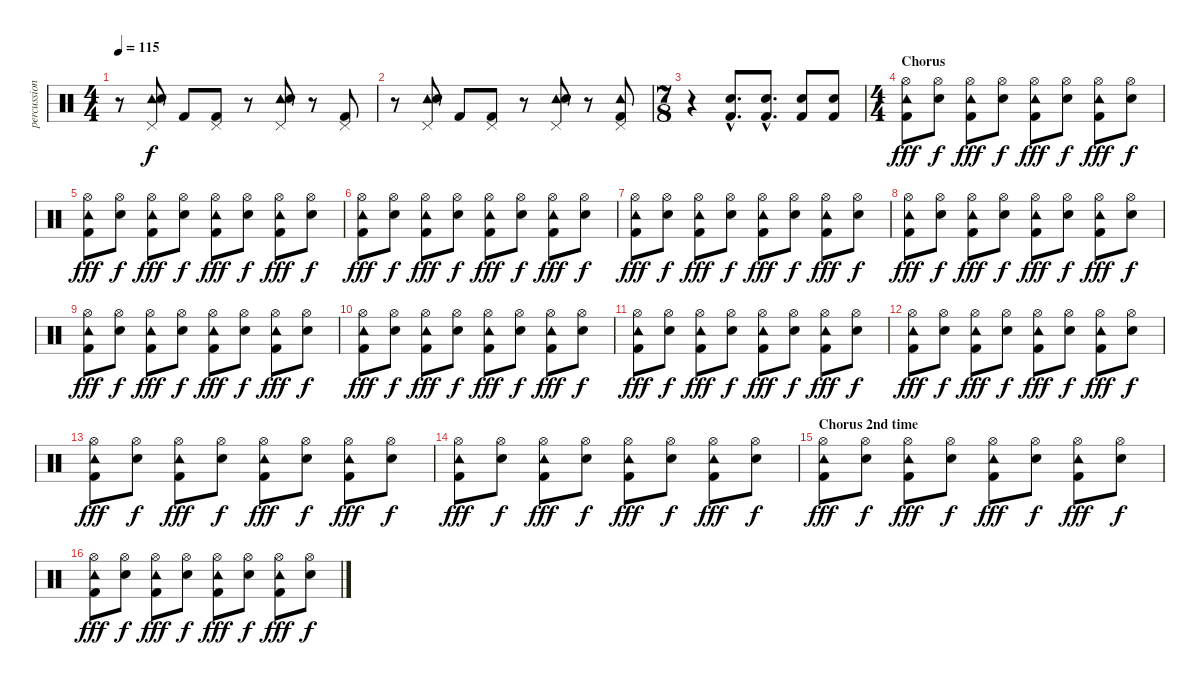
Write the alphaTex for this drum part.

\track ("percussion - vom" "percussion") {instrument percussion}
\staff {score}
\articulation defaults
\ts (4 4)
\tempo 115
\clef neutral
\ks c
r.8{dy f} ("Pedal Hi-Hat (hit)" "Tambourine (hit)" "Snare (hit) 2").8 "Kick (hit) 2".8 ("Pedal Hi-Hat (hit)" "Kick (hit) 2").8 r.8 ("Pedal Hi-Hat (hit)" "Tambourine (hit)" "Snare (hit) 2").8 r.8 ("Pedal Hi-Hat (hit)" "Kick (hit) 2").8 |
r.8 ("Pedal Hi-Hat (hit)" "Tambourine (hit)" "Snare (hit) 2").8 "Kick (hit) 2".8 ("Pedal Hi-Hat (hit)" "Kick (hit) 2").8 r.8 ("Pedal Hi-Hat (hit)" "Tambourine (hit)" "Snare (hit) 2").8 r.8 ("Pedal Hi-Hat (hit)" "Tambourine (hit)" "Kick (hit) 2").8 |
\ts (7 8)
r.4 ("Snare (hit) 2"{hac} "Kick (hit) 2"{hac}).8{d} ("Snare (hit) 2"{hac} "Kick (hit) 2"{hac}).8{d} ("Snare (hit) 2" "Kick (hit) 2").8 ("Snare (hit) 2" "Kick (hit) 2").8 |
\ts (4 4)
\section ("" "Chorus")
("Hi-Hat (open)" "Tambourine (hit)" "Kick (hit) 2").8{dy fff} ("Hi-Hat (open)" "Snare (hit) 2").8{dy f} ("Hi-Hat (open)" "Tambourine (hit)" "Kick (hit) 2").8{dy fff} ("Hi-Hat (open)" "Snare (hit) 2").8{dy f} ("Hi-Hat (open)" "Tambourine (hit)" "Kick (hit) 2").8{dy fff} ("Hi-Hat (open)" "Snare (hit) 2").8{dy f} ("Hi-Hat (open)" "Tambourine (hit)" "Kick (hit) 2").8{dy fff} ("Hi-Hat (open)" "Snare (hit) 2").8{dy f} |
("Hi-Hat (open)" "Tambourine (hit)" "Kick (hit) 2").8{dy fff} ("Hi-Hat (open)" "Snare (hit) 2").8{dy f} ("Hi-Hat (open)" "Tambourine (hit)" "Kick (hit) 2").8{dy fff} ("Hi-Hat (open)" "Snare (hit) 2").8{dy f} ("Hi-Hat (open)" "Tambourine (hit)" "Kick (hit) 2").8{dy fff} ("Hi-Hat (open)" "Snare (hit) 2").8{dy f} ("Hi-Hat (open)" "Tambourine (hit)" "Kick (hit) 2").8{dy fff} ("Hi-Hat (open)" "Snare (hit) 2").8{dy f} |
("Hi-Hat (open)" "Tambourine (hit)" "Kick (hit) 2").8{dy fff} ("Hi-Hat (open)" "Snare (hit) 2").8{dy f} ("Hi-Hat (open)" "Tambourine (hit)" "Kick (hit) 2").8{dy fff} ("Hi-Hat (open)" "Snare (hit) 2").8{dy f} ("Hi-Hat (open)" "Tambourine (hit)" "Kick (hit) 2").8{dy fff} ("Hi-Hat (open)" "Snare (hit) 2").8{dy f} ("Hi-Hat (open)" "Tambourine (hit)" "Kick (hit) 2").8{dy fff} ("Hi-Hat (open)" "Snare (hit) 2").8{dy f} |
("Hi-Hat (open)" "Tambourine (hit)" "Kick (hit) 2").8{dy fff} ("Hi-Hat (open)" "Snare (hit) 2").8{dy f} ("Hi-Hat (open)" "Tambourine (hit)" "Kick (hit) 2").8{dy fff} ("Hi-Hat (open)" "Snare (hit) 2").8{dy f} ("Hi-Hat (open)" "Tambourine (hit)" "Kick (hit) 2").8{dy fff} ("Hi-Hat (open)" "Snare (hit) 2").8{dy f} ("Hi-Hat (open)" "Tambourine (hit)" "Kick (hit) 2").8{dy fff} ("Hi-Hat (open)" "Snare (hit) 2").8{dy f} |
("Hi-Hat (open)" "Tambourine (hit)" "Kick (hit) 2").8{dy fff} ("Hi-Hat (open)" "Snare (hit) 2").8{dy f} ("Hi-Hat (open)" "Tambourine (hit)" "Kick (hit) 2").8{dy fff} ("Hi-Hat (open)" "Snare (hit) 2").8{dy f} ("Hi-Hat (open)" "Tambourine (hit)" "Kick (hit) 2").8{dy fff} ("Hi-Hat (open)" "Snare (hit) 2").8{dy f} ("Hi-Hat (open)" "Tambourine (hit)" "Kick (hit) 2").8{dy fff} ("Hi-Hat (open)" "Snare (hit) 2").8{dy f} |
("Hi-Hat (open)" "Tambourine (hit)" "Kick (hit) 2").8{dy fff} ("Hi-Hat (open)" "Snare (hit) 2").8{dy f} ("Hi-Hat (open)" "Tambourine (hit)" "Kick (hit) 2").8{dy fff} ("Hi-Hat (open)" "Snare (hit) 2").8{dy f} ("Hi-Hat (open)" "Tambourine (hit)" "Kick (hit) 2").8{dy fff} ("Hi-Hat (open)" "Snare (hit) 2").8{dy f} ("Hi-Hat (open)" "Tambourine (hit)" "Kick (hit) 2").8{dy fff} ("Hi-Hat (open)" "Snare (hit) 2").8{dy f} |
("Hi-Hat (open)" "Tambourine (hit)" "Kick (hit) 2").8{dy fff} ("Hi-Hat (open)" "Snare (hit) 2").8{dy f} ("Hi-Hat (open)" "Tambourine (hit)" "Kick (hit) 2").8{dy fff} ("Hi-Hat (open)" "Snare (hit) 2").8{dy f} ("Hi-Hat (open)" "Tambourine (hit)" "Kick (hit) 2").8{dy fff} ("Hi-Hat (open)" "Snare (hit) 2").8{dy f} ("Hi-Hat (open)" "Tambourine (hit)" "Kick (hit) 2").8{dy fff} ("Hi-Hat (open)" "Snare (hit) 2").8{dy f} |
("Hi-Hat (open)" "Tambourine (hit)" "Kick (hit) 2").8{dy fff} ("Hi-Hat (open)" "Snare (hit) 2").8{dy f} ("Hi-Hat (open)" "Tambourine (hit)" "Kick (hit) 2").8{dy fff} ("Hi-Hat (open)" "Snare (hit) 2").8{dy f} ("Hi-Hat (open)" "Tambourine (hit)" "Kick (hit) 2").8{dy fff} ("Hi-Hat (open)" "Snare (hit) 2").8{dy f} ("Hi-Hat (open)" "Tambourine (hit)" "Kick (hit) 2").8{dy fff} ("Hi-Hat (open)" "Snare (hit) 2").8{dy f} |
("Hi-Hat (open)" "Tambourine (hit)" "Kick (hit) 2").8{dy fff} ("Hi-Hat (open)" "Snare (hit) 2").8{dy f} ("Hi-Hat (open)" "Tambourine (hit)" "Kick (hit) 2").8{dy fff} ("Hi-Hat (open)" "Snare (hit) 2").8{dy f} ("Hi-Hat (open)" "Tambourine (hit)" "Kick (hit) 2").8{dy fff} ("Hi-Hat (open)" "Snare (hit) 2").8{dy f} ("Hi-Hat (open)" "Tambourine (hit)" "Kick (hit) 2").8{dy fff} ("Hi-Hat (open)" "Snare (hit) 2").8{dy f} |
("Hi-Hat (open)" "Tambourine (hit)" "Kick (hit) 2").8{dy fff} ("Hi-Hat (open)" "Snare (hit) 2").8{dy f} ("Hi-Hat (open)" "Tambourine (hit)" "Kick (hit) 2").8{dy fff} ("Hi-Hat (open)" "Snare (hit) 2").8{dy f} ("Hi-Hat (open)" "Tambourine (hit)" "Kick (hit) 2").8{dy fff} ("Hi-Hat (open)" "Snare (hit) 2").8{dy f} ("Hi-Hat (open)" "Tambourine (hit)" "Kick (hit) 2").8{dy fff} ("Hi-Hat (open)" "Snare (hit) 2").8{dy f} |
("Hi-Hat (open)" "Tambourine (hit)" "Kick (hit) 2").8{dy fff} ("Hi-Hat (open)" "Snare (hit) 2").8{dy f} ("Hi-Hat (open)" "Tambourine (hit)" "Kick (hit) 2").8{dy fff} ("Hi-Hat (open)" "Snare (hit) 2").8{dy f} ("Hi-Hat (open)" "Tambourine (hit)" "Kick (hit) 2").8{dy fff} ("Hi-Hat (open)" "Snare (hit) 2").8{dy f} ("Hi-Hat (open)" "Tambourine (hit)" "Kick (hit) 2").8{dy fff} ("Hi-Hat (open)" "Snare (hit) 2").8{dy f} |
\section ("" "Chorus 2nd time")
("Hi-Hat (open)" "Tambourine (hit)" "Kick (hit) 2").8{dy fff} ("Hi-Hat (open)" "Snare (hit) 2").8{dy f} ("Hi-Hat (open)" "Tambourine (hit)" "Kick (hit) 2").8{dy fff} ("Hi-Hat (open)" "Snare (hit) 2").8{dy f} ("Hi-Hat (open)" "Tambourine (hit)" "Kick (hit) 2").8{dy fff} ("Hi-Hat (open)" "Snare (hit) 2").8{dy f} ("Hi-Hat (open)" "Tambourine (hit)" "Kick (hit) 2").8{dy fff} ("Hi-Hat (open)" "Snare (hit) 2").8{dy f} |
("Hi-Hat (open)" "Tambourine (hit)" "Kick (hit) 2").8{dy fff} ("Hi-Hat (open)" "Snare (hit) 2").8{dy f} ("Hi-Hat (open)" "Tambourine (hit)" "Kick (hit) 2").8{dy fff} ("Hi-Hat (open)" "Snare (hit) 2").8{dy f} ("Hi-Hat (open)" "Tambourine (hit)" "Kick (hit) 2").8{dy fff} ("Hi-Hat (open)" "Snare (hit) 2").8{dy f} ("Hi-Hat (open)" "Tambourine (hit)" "Kick (hit) 2").8{dy fff} ("Hi-Hat (open)" "Snare (hit) 2").8{dy f}
